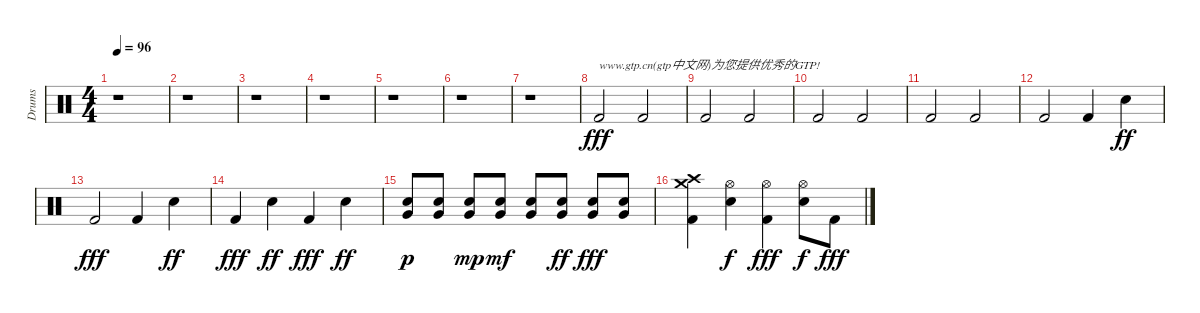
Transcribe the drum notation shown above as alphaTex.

\track ("Drums" "Drums") {instrument percussion}
\staff {score}
\articulation defaults
\ts (4 4)
\tempo 96
\clef neutral
\ks c
r.1{dy fff} |
r.1 |
r.1 |
r.1 |
r.1 |
r.1 |
r.1 |
"Kick (hit) 2".2{txt "www.gtp.cn(gtp中文网)为您提供优秀的GTP!"} "Kick (hit) 2".2 |
"Kick (hit) 2".2 "Kick (hit) 2".2 |
"Kick (hit) 2".2 "Kick (hit) 2".2 |
"Kick (hit) 2".2 "Kick (hit) 2".2 |
"Kick (hit) 2".2 "Kick (hit) 2".4 "Electric Snare (hit)".4{dy ff} |
"Kick (hit) 2".2{dy fff} "Kick (hit) 2".4 "Electric Snare (hit)".4{dy ff} |
"Kick (hit) 2".4{dy fff} "Electric Snare (hit)".4{dy ff} "Kick (hit) 2".4{dy fff} "Electric Snare (hit)".4{dy ff} |
("Electric Snare (hit)" "Very Low Tom (hit)").8{dy p} ("Electric Snare (hit)" "Very Low Tom (hit)").8 ("Electric Snare (hit)" "Very Low Tom (hit)").8{dy mp} ("Electric Snare (hit)" "Very Low Tom (hit)").8{dy mf} ("Electric Snare (hit)" "Very Low Tom (hit)").8 ("Electric Snare (hit)" "Very Low Tom (hit)").8{dy ff} ("Electric Snare (hit)" "Very Low Tom (hit)").8{dy fff} ("Electric Snare (hit)" "Very Low Tom (hit)").8 |
("Crash high (hit)" "Crash medium (hit)" "Kick (hit) 2").4 ("Hi-Hat (open)" "Electric Snare (hit)").4{dy f} ("Hi-Hat (open)" "Kick (hit) 2").4{dy fff} ("Hi-Hat (open)" "Electric Snare (hit)").8{dy f} "Kick (hit) 2".8{dy fff}
